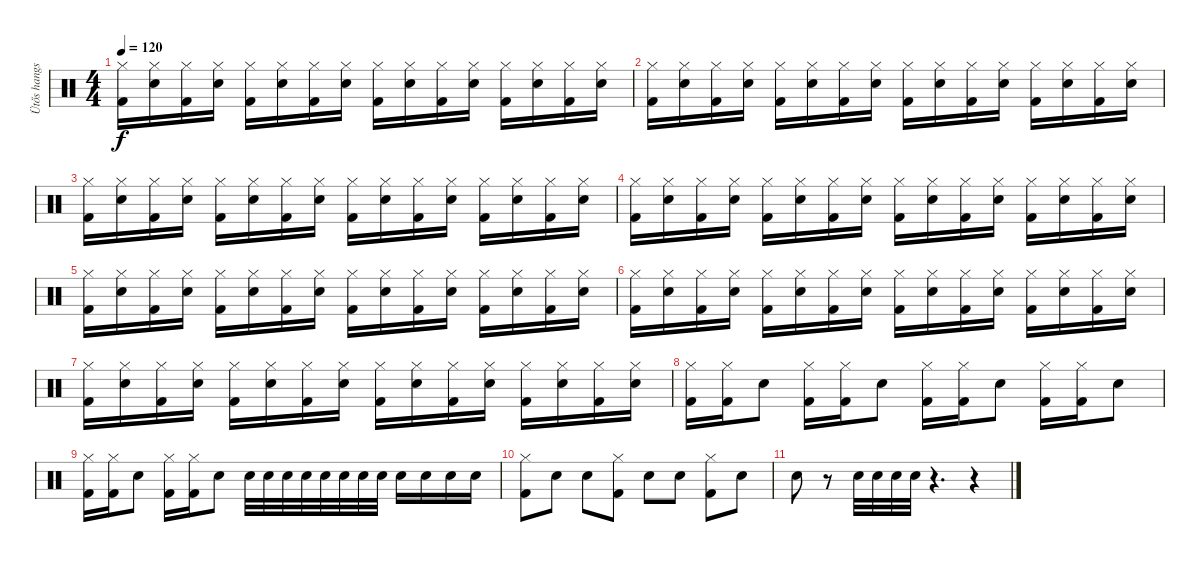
\track ("Ütős hangszer" "Ütős hangs") {instrument percussion}
\staff {score}
\articulation defaults
\ts (4 4)
\tempo 120
\clef neutral
\ks c
("Hi-Hat (closed)" "Kick (hit) 2").16{dy f} ("Hi-Hat (closed)" "Snare (hit) 2").16 ("Hi-Hat (closed)" "Kick (hit) 2").16 ("Hi-Hat (closed)" "Snare (hit) 2").16 ("Hi-Hat (closed)" "Kick (hit) 2").16 ("Hi-Hat (closed)" "Snare (hit) 2").16 ("Hi-Hat (closed)" "Kick (hit) 2").16 ("Hi-Hat (closed)" "Snare (hit) 2").16 ("Hi-Hat (closed)" "Kick (hit) 2").16 ("Hi-Hat (closed)" "Snare (hit) 2").16 ("Hi-Hat (closed)" "Kick (hit) 2").16 ("Hi-Hat (closed)" "Snare (hit) 2").16 ("Hi-Hat (closed)" "Kick (hit) 2").16 ("Hi-Hat (closed)" "Snare (hit) 2").16 ("Hi-Hat (closed)" "Kick (hit) 2").16 ("Hi-Hat (closed)" "Snare (hit) 2").16 |
("Hi-Hat (closed)" "Kick (hit) 2").16 ("Hi-Hat (closed)" "Snare (hit) 2").16 ("Hi-Hat (closed)" "Kick (hit) 2").16 ("Hi-Hat (closed)" "Snare (hit) 2").16 ("Hi-Hat (closed)" "Kick (hit) 2").16 ("Hi-Hat (closed)" "Snare (hit) 2").16 ("Hi-Hat (closed)" "Kick (hit) 2").16 ("Hi-Hat (closed)" "Snare (hit) 2").16 ("Hi-Hat (closed)" "Kick (hit) 2").16 ("Hi-Hat (closed)" "Snare (hit) 2").16 ("Hi-Hat (closed)" "Kick (hit) 2").16 ("Hi-Hat (closed)" "Snare (hit) 2").16 ("Hi-Hat (closed)" "Kick (hit) 2").16 ("Hi-Hat (closed)" "Snare (hit) 2").16 ("Hi-Hat (closed)" "Kick (hit) 2").16 ("Hi-Hat (closed)" "Snare (hit) 2").16 |
("Hi-Hat (closed)" "Kick (hit) 2").16 ("Hi-Hat (closed)" "Snare (hit) 2").16 ("Hi-Hat (closed)" "Kick (hit) 2").16 ("Hi-Hat (closed)" "Snare (hit) 2").16 ("Hi-Hat (closed)" "Kick (hit) 2").16 ("Hi-Hat (closed)" "Snare (hit) 2").16 ("Hi-Hat (closed)" "Kick (hit) 2").16 ("Hi-Hat (closed)" "Snare (hit) 2").16 ("Hi-Hat (closed)" "Kick (hit) 2").16 ("Hi-Hat (closed)" "Snare (hit) 2").16 ("Hi-Hat (closed)" "Kick (hit) 2").16 ("Hi-Hat (closed)" "Snare (hit) 2").16 ("Hi-Hat (closed)" "Kick (hit) 2").16 ("Hi-Hat (closed)" "Snare (hit) 2").16 ("Hi-Hat (closed)" "Kick (hit) 2").16 ("Hi-Hat (closed)" "Snare (hit) 2").16 |
("Hi-Hat (closed)" "Kick (hit) 2").16 ("Hi-Hat (closed)" "Snare (hit) 2").16 ("Hi-Hat (closed)" "Kick (hit) 2").16 ("Hi-Hat (closed)" "Snare (hit) 2").16 ("Hi-Hat (closed)" "Kick (hit) 2").16 ("Hi-Hat (closed)" "Snare (hit) 2").16 ("Hi-Hat (closed)" "Kick (hit) 2").16 ("Hi-Hat (closed)" "Snare (hit) 2").16 ("Hi-Hat (closed)" "Kick (hit) 2").16 ("Hi-Hat (closed)" "Snare (hit) 2").16 ("Hi-Hat (closed)" "Kick (hit) 2").16 ("Hi-Hat (closed)" "Snare (hit) 2").16 ("Hi-Hat (closed)" "Kick (hit) 2").16 ("Hi-Hat (closed)" "Snare (hit) 2").16 ("Hi-Hat (closed)" "Kick (hit) 2").16 ("Hi-Hat (closed)" "Snare (hit) 2").16 |
("Hi-Hat (closed)" "Kick (hit) 2").16 ("Hi-Hat (closed)" "Snare (hit) 2").16 ("Hi-Hat (closed)" "Kick (hit) 2").16 ("Hi-Hat (closed)" "Snare (hit) 2").16 ("Hi-Hat (closed)" "Kick (hit) 2").16 ("Hi-Hat (closed)" "Snare (hit) 2").16 ("Hi-Hat (closed)" "Kick (hit) 2").16 ("Hi-Hat (closed)" "Snare (hit) 2").16 ("Hi-Hat (closed)" "Kick (hit) 2").16 ("Hi-Hat (closed)" "Snare (hit) 2").16 ("Hi-Hat (closed)" "Kick (hit) 2").16 ("Hi-Hat (closed)" "Snare (hit) 2").16 ("Hi-Hat (closed)" "Kick (hit) 2").16 ("Hi-Hat (closed)" "Snare (hit) 2").16 ("Hi-Hat (closed)" "Kick (hit) 2").16 ("Hi-Hat (closed)" "Snare (hit) 2").16 |
("Hi-Hat (closed)" "Kick (hit) 2").16 ("Hi-Hat (closed)" "Snare (hit) 2").16 ("Hi-Hat (closed)" "Kick (hit) 2").16 ("Hi-Hat (closed)" "Snare (hit) 2").16 ("Hi-Hat (closed)" "Kick (hit) 2").16 ("Hi-Hat (closed)" "Snare (hit) 2").16 ("Hi-Hat (closed)" "Kick (hit) 2").16 ("Hi-Hat (closed)" "Snare (hit) 2").16 ("Hi-Hat (closed)" "Kick (hit) 2").16 ("Hi-Hat (closed)" "Snare (hit) 2").16 ("Hi-Hat (closed)" "Kick (hit) 2").16 ("Hi-Hat (closed)" "Snare (hit) 2").16 ("Hi-Hat (closed)" "Kick (hit) 2").16 ("Hi-Hat (closed)" "Snare (hit) 2").16 ("Hi-Hat (closed)" "Kick (hit) 2").16 ("Hi-Hat (closed)" "Snare (hit) 2").16 |
("Hi-Hat (closed)" "Kick (hit) 2").16 ("Hi-Hat (closed)" "Snare (hit) 2").16 ("Hi-Hat (closed)" "Kick (hit) 2").16 ("Hi-Hat (closed)" "Snare (hit) 2").16 ("Hi-Hat (closed)" "Kick (hit) 2").16 ("Hi-Hat (closed)" "Snare (hit) 2").16 ("Hi-Hat (closed)" "Kick (hit) 2").16 ("Hi-Hat (closed)" "Snare (hit) 2").16 ("Hi-Hat (closed)" "Kick (hit) 2").16 ("Hi-Hat (closed)" "Snare (hit) 2").16 ("Hi-Hat (closed)" "Kick (hit) 2").16 ("Hi-Hat (closed)" "Snare (hit) 2").16 ("Hi-Hat (closed)" "Kick (hit) 2").16 ("Hi-Hat (closed)" "Snare (hit) 2").16 ("Hi-Hat (closed)" "Kick (hit) 2").16 ("Hi-Hat (closed)" "Snare (hit) 2").16 |
("Hi-Hat (closed)" "Kick (hit) 2").16 ("Hi-Hat (closed)" "Kick (hit) 2").16 "Snare (hit) 2".8 ("Hi-Hat (closed)" "Kick (hit) 2").16 ("Hi-Hat (closed)" "Kick (hit) 2").16 "Snare (hit) 2".8 ("Hi-Hat (closed)" "Kick (hit) 2").16 ("Hi-Hat (closed)" "Kick (hit) 2").16 "Snare (hit) 2".8 ("Hi-Hat (closed)" "Kick (hit) 2").16 ("Hi-Hat (closed)" "Kick (hit) 2").16 "Snare (hit) 2".8 |
("Hi-Hat (closed)" "Kick (hit) 2").16 ("Hi-Hat (closed)" "Kick (hit) 2").16 "Snare (hit) 2".8 ("Hi-Hat (closed)" "Kick (hit) 2").16 ("Hi-Hat (closed)" "Kick (hit) 2").16 "Snare (hit) 2".8 "Snare (hit) 2".32 "Snare (hit) 2".32 "Snare (hit) 2".32 "Snare (hit) 2".32 "Snare (hit) 2".32 "Snare (hit) 2".32 "Snare (hit) 2".32 "Snare (hit) 2".32 "Snare (hit) 2".16 "Snare (hit) 2".16 "Snare (hit) 2".16 "Snare (hit) 2".16 |
("Hi-Hat (closed)" "Kick (hit) 2").8 "Snare (hit) 2".8 "Snare (hit) 2".8 ("Hi-Hat (closed)" "Kick (hit) 2").8 "Snare (hit) 2".8 "Snare (hit) 2".8 ("Hi-Hat (closed)" "Kick (hit) 2").8 "Snare (hit) 2".8 |
"Snare (hit) 2".8 r.8 "Snare (hit) 2".32 "Snare (hit) 2".32 "Snare (hit) 2".32 "Snare (hit) 2".32 r.4{d} r.4
